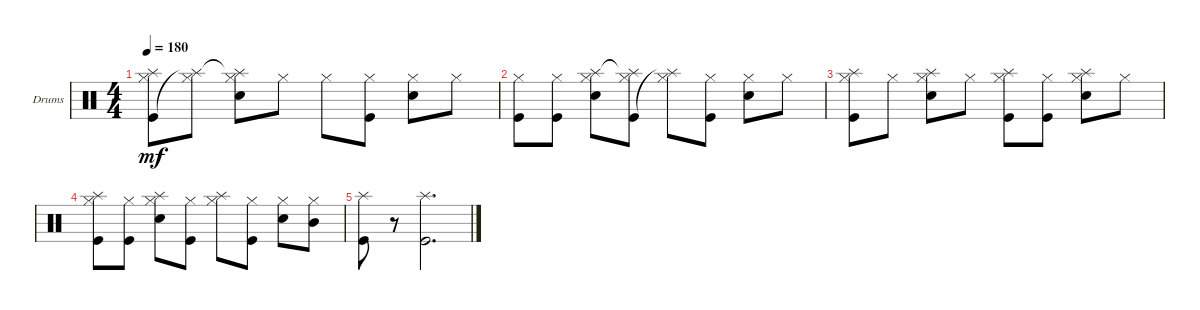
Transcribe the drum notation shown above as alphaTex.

\bracketExtendMode groupsimilarinstruments
\firstSystemTrackNameOrientation horizontal
\otherSystemsTrackNameOrientation horizontal
\track ("Drumkit" "Drums") {instrument percussion}
\staff {score}
\articulation defaults
\ts (4 4)
\tempo 180
\clef neutral
\ks c
("Hi-Hat (closed)" "Kick (hit)" "Splash (hit)").8{dy mf} ("Hi-Hat (closed)" "Splash (hit)"{t}).8 ("Hi-Hat (closed)" "Splash (hit)"{t} "Snare (hit) 2").8 "Hi-Hat (closed)".8 "Hi-Hat (closed)".8 ("Hi-Hat (closed)" "Kick (hit)").8 ("Hi-Hat (closed)" "Snare (hit) 2").8 "Hi-Hat (closed)".8 |
("Hi-Hat (closed)" "Kick (hit)").8 ("Hi-Hat (closed)" "Kick (hit)").8 ("Hi-Hat (closed)" "Snare (hit) 2" "Splash (hit)").8 ("Hi-Hat (closed)" "Kick (hit)" "Splash (hit)"{t}).8 ("Hi-Hat (closed)" "Splash (hit)"{t}).8 ("Hi-Hat (closed)" "Kick (hit)").8 ("Hi-Hat (closed)" "Snare (hit) 2").8 "Hi-Hat (closed)".8 |
("Hi-Hat (closed)" "Kick (hit)" "Splash (hit)").8 "Hi-Hat (closed)".8 ("Hi-Hat (closed)" "Snare (hit) 2" "Splash (hit)").8 "Hi-Hat (closed)".8 ("Hi-Hat (closed)" "Kick (hit)" "Splash (hit)").8 ("Hi-Hat (closed)" "Kick (hit)").8 ("Hi-Hat (closed)" "Snare (hit) 2" "Splash (hit)").8 "Hi-Hat (closed)".8 |
("Hi-Hat (closed)" "Kick (hit)" "Splash (hit)").8 ("Hi-Hat (closed)" "Kick (hit)").8 ("Hi-Hat (closed)" "Snare (hit) 2" "Splash (hit)").8 ("Hi-Hat (closed)" "Kick (hit)").8 ("Hi-Hat (closed)" "Splash (hit)").8 ("Hi-Hat (closed)" "Kick (hit)").8 ("Hi-Hat (closed)" "Snare (hit) 2").8 ("Hi-Hat (closed)" "Mid Tom (hit)").8 |
("Kick (hit)" "Splash (hit)").8 r.8 ("Kick (hit)" "Splash (hit)").2{d}
